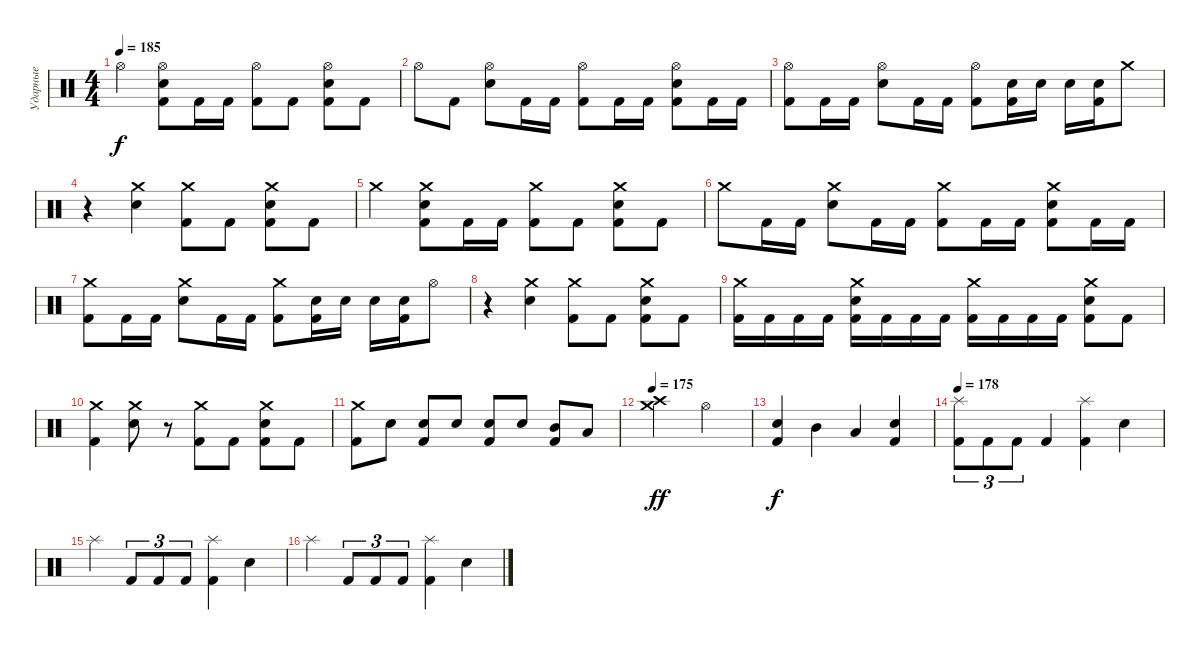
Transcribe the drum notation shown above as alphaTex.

\track ("Ударные" "Ударные") {instrument percussion}
\staff {score}
\articulation defaults
\ts (4 4)
\tempo 185
\clef neutral
\ks c "Hi-Hat (open)".4{dy f}
("Hi-Hat (open)" "Electric Snare (hit)" "Kick (hit) 2").8 "Kick (hit) 2".16 "Kick (hit) 2".16 ("Hi-Hat (open)" "Kick (hit) 2").8 "Kick (hit) 2".8 ("Hi-Hat (open)" "Electric Snare (hit)" "Kick (hit) 2").8 "Kick (hit) 2".8 |
"Hi-Hat (open)".8 "Kick (hit) 2".8 ("Hi-Hat (open)" "Electric Snare (hit)").8 "Kick (hit) 2".16 "Kick (hit) 2".16 ("Hi-Hat (open)" "Kick (hit) 2").8 "Kick (hit) 2".16 "Kick (hit) 2".16 ("Hi-Hat (open)" "Electric Snare (hit)" "Kick (hit) 2").8 "Kick (hit) 2".16 "Kick (hit) 2".16 |
("Hi-Hat (open)" "Kick (hit) 2").8 "Kick (hit) 2".16 "Kick (hit) 2".16 ("Hi-Hat (open)" "Electric Snare (hit)").8 "Kick (hit) 2".16 "Kick (hit) 2".16 ("Hi-Hat (open)" "Kick (hit) 2").8 ("Electric Snare (hit)" "Kick (hit) 2").16 "Electric Snare (hit)".16 "Electric Snare (hit)".16 ("Electric Snare (hit)" "Kick (hit) 2").16 "Crash medium (hit)".8 |
r.4 ("Crash medium (hit)" "Electric Snare (hit)").4 ("Crash medium (hit)" "Kick (hit) 2").8 "Kick (hit) 2".8 ("Crash medium (hit)" "Electric Snare (hit)" "Kick (hit) 2").8 "Kick (hit) 2".8 |
"Crash medium (hit)".4 ("Crash medium (hit)" "Electric Snare (hit)" "Kick (hit) 2").8 "Kick (hit) 2".16 "Kick (hit) 2".16 ("Crash medium (hit)" "Kick (hit) 2").8 "Kick (hit) 2".8 ("Crash medium (hit)" "Electric Snare (hit)" "Kick (hit) 2").8 "Kick (hit) 2".8 |
"Crash medium (hit)".8 "Kick (hit) 2".16 "Kick (hit) 2".16 ("Crash medium (hit)" "Electric Snare (hit)").8 "Kick (hit) 2".16 "Kick (hit) 2".16 ("Crash medium (hit)" "Kick (hit) 2").8 "Kick (hit) 2".16 "Kick (hit) 2".16 ("Crash medium (hit)" "Electric Snare (hit)" "Kick (hit) 2").8 "Kick (hit) 2".16 "Kick (hit) 2".16 |
("Crash medium (hit)" "Kick (hit) 2").8 "Kick (hit) 2".16 "Kick (hit) 2".16 ("Crash medium (hit)" "Electric Snare (hit)").8 "Kick (hit) 2".16 "Kick (hit) 2".16 ("Crash medium (hit)" "Kick (hit) 2").8 ("Electric Snare (hit)" "Kick (hit) 2").16 "Electric Snare (hit)".16 "Electric Snare (hit)".16 ("Electric Snare (hit)" "Kick (hit) 2").16 "Hi-Hat (open)".8 |
r.4 ("Crash medium (hit)" "Electric Snare (hit)").4 ("Crash medium (hit)" "Kick (hit) 2").8 "Kick (hit) 2".8 ("Crash medium (hit)" "Electric Snare (hit)" "Kick (hit) 2").8 "Kick (hit) 2".8 |
("Crash medium (hit)" "Kick (hit) 2").16 "Kick (hit) 2".16 "Kick (hit) 2".16 "Kick (hit) 2".16 ("Crash medium (hit)" "Electric Snare (hit)" "Kick (hit) 2").16 "Kick (hit) 2".16 "Kick (hit) 2".16 "Kick (hit) 2".16 ("Crash medium (hit)" "Kick (hit) 2").16 "Kick (hit) 2".16 "Kick (hit) 2".16 "Kick (hit) 2".16 ("Crash medium (hit)" "Electric Snare (hit)" "Kick (hit) 2").8 "Kick (hit) 2".8 |
("Crash medium (hit)" "Kick (hit) 2").4 ("Crash medium (hit)" "Electric Snare (hit)").8 r.8 ("Crash medium (hit)" "Kick (hit) 2").8 "Kick (hit) 2".8 ("Crash medium (hit)" "Electric Snare (hit)" "Kick (hit) 2").8 "Kick (hit) 2".8 |
("Crash medium (hit)" "Kick (hit) 2").8 "Electric Snare (hit)".8 ("Electric Snare (hit)" "Kick (hit) 2").8 "Electric Snare (hit)".8 ("Electric Snare (hit)" "Kick (hit) 2").8 "Electric Snare (hit)".8 ("Mid Tom (hit)" "Kick (hit) 2").8 "Low Tom (hit)".8 |
\tempo 175
("Crash high (hit)" "Crash medium (hit)").2{dy ff} "Hi-Hat (open)".2 |
("Electric Snare (hit)" "Kick (hit) 2").4{dy f} "Mid Tom (hit)".4 "Low Tom (hit)".4 ("Electric Snare (hit)" "Kick (hit) 2").4 |
\tempo 178
("Splash (hit)" "Kick (hit) 2").8{tu (3 2)} "Kick (hit) 2".8{tu (3 2)} "Kick (hit) 2".8{tu (3 2)} "Kick (hit) 2".4 ("Splash (hit)" "Kick (hit) 2").4 "Electric Snare (hit)".4 |
"Splash (hit)".4 "Kick (hit) 2".8{tu (3 2)} "Kick (hit) 2".8{tu (3 2)} "Kick (hit) 2".8{tu (3 2)} ("Splash (hit)" "Kick (hit) 2").4 "Electric Snare (hit)".4 |
"Splash (hit)".4 "Kick (hit) 2".8{tu (3 2)} "Kick (hit) 2".8{tu (3 2)} "Kick (hit) 2".8{tu (3 2)} ("Splash (hit)" "Kick (hit) 2").4 "Electric Snare (hit)".4
